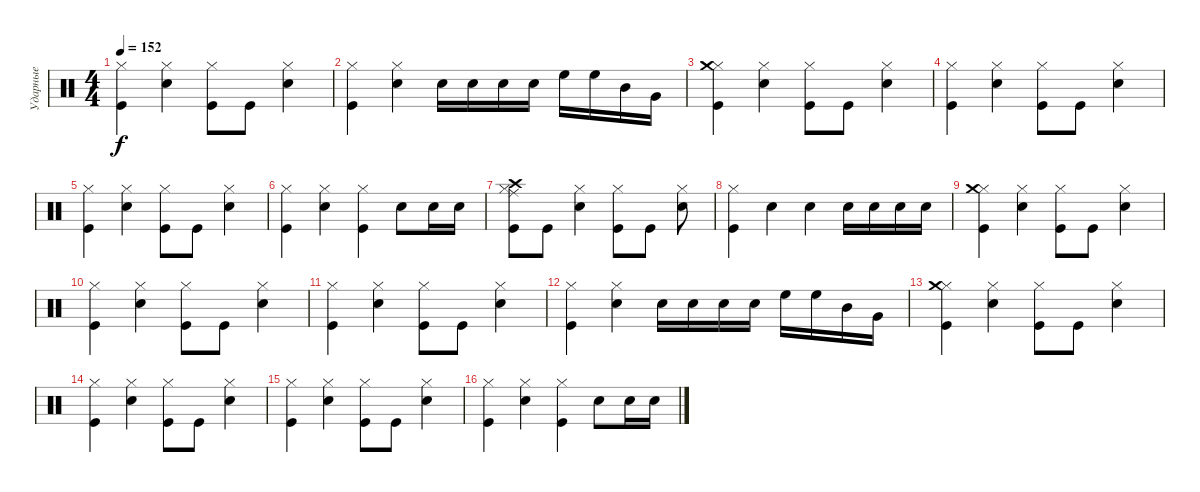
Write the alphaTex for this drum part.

\track ("Ударные" "Ударные") {instrument percussion}
\staff {score}
\articulation defaults
\ts (4 4)
\tempo 152
\clef neutral
\ks c
("Hi-Hat (closed)" "Kick (hit)").4{dy f} ("Hi-Hat (closed)" "Snare (hit) 2").4 ("Kick (hit)" "Hi-Hat (closed)").8 "Kick (hit)".8 ("Snare (hit) 2" "Hi-Hat (closed)").4 |
("Hi-Hat (closed)" "Kick (hit)").4 ("Hi-Hat (closed)" "Snare (hit) 2").4 "Snare (hit) 2".16 "Snare (hit) 2".16 "Snare (hit) 2".16 "Snare (hit) 2".16 "High Floor Tom (hit)".16 "High Floor Tom (hit)".16 "Mid Tom (hit)".16 "Very Low Tom (hit)".16 |
("Hi-Hat (closed)" "Crash medium (hit)" "Kick (hit)").4 ("Hi-Hat (closed)" "Snare (hit) 2").4 ("Kick (hit)" "Hi-Hat (closed)").8 "Kick (hit)".8 ("Snare (hit) 2" "Hi-Hat (closed)").4 |
("Hi-Hat (closed)" "Kick (hit)").4 ("Hi-Hat (closed)" "Snare (hit) 2").4 ("Kick (hit)" "Hi-Hat (closed)").8 "Kick (hit)".8 ("Snare (hit) 2" "Hi-Hat (closed)").4 |
("Hi-Hat (closed)" "Kick (hit)").4 ("Hi-Hat (closed)" "Snare (hit) 2").4 ("Kick (hit)" "Hi-Hat (closed)").8 "Kick (hit)".8 ("Snare (hit) 2" "Hi-Hat (closed)").4 |
("Hi-Hat (closed)" "Kick (hit)").4 ("Hi-Hat (closed)" "Snare (hit) 2").4 ("Kick (hit)" "Hi-Hat (closed)").4 "Snare (hit) 2".8 "Snare (hit) 2".16 "Snare (hit) 2".16 |
("Kick (hit)" "Hi-Hat (closed)" "Ride (middle)" "Crash high (hit)").8 "Kick (hit)".8 ("Snare (hit) 2" "Hi-Hat (closed)").4 ("Hi-Hat (closed)" "Kick (hit)").8 "Kick (hit)".8 ("Snare (hit) 2" "Hi-Hat (closed)").8 |
("Kick (hit)" "Hi-Hat (closed)").4 "Snare (hit) 2".4 "Snare (hit) 2".4 "Snare (hit) 2".16 "Snare (hit) 2".16 "Snare (hit) 2".16 "Snare (hit) 2".16 |
("Hi-Hat (closed)" "Crash medium (hit)" "Kick (hit)").4 ("Hi-Hat (closed)" "Snare (hit) 2").4 ("Kick (hit)" "Hi-Hat (closed)").8 "Kick (hit)".8 ("Snare (hit) 2" "Hi-Hat (closed)").4 |
("Hi-Hat (closed)" "Kick (hit)").4 ("Hi-Hat (closed)" "Snare (hit) 2").4 ("Kick (hit)" "Hi-Hat (closed)").8 "Kick (hit)".8 ("Snare (hit) 2" "Hi-Hat (closed)").4 |
("Hi-Hat (closed)" "Kick (hit)").4 ("Hi-Hat (closed)" "Snare (hit) 2").4 ("Kick (hit)" "Hi-Hat (closed)").8 "Kick (hit)".8 ("Snare (hit) 2" "Hi-Hat (closed)").4 |
("Hi-Hat (closed)" "Kick (hit)").4 ("Hi-Hat (closed)" "Snare (hit) 2").4 "Snare (hit) 2".16 "Snare (hit) 2".16 "Snare (hit) 2".16 "Snare (hit) 2".16 "High Floor Tom (hit)".16 "High Floor Tom (hit)".16 "Mid Tom (hit)".16 "Very Low Tom (hit)".16 |
("Hi-Hat (closed)" "Crash medium (hit)" "Kick (hit)").4 ("Hi-Hat (closed)" "Snare (hit) 2").4 ("Kick (hit)" "Hi-Hat (closed)").8 "Kick (hit)".8 ("Snare (hit) 2" "Hi-Hat (closed)").4 |
("Hi-Hat (closed)" "Kick (hit)").4 ("Hi-Hat (closed)" "Snare (hit) 2").4 ("Kick (hit)" "Hi-Hat (closed)").8 "Kick (hit)".8 ("Snare (hit) 2" "Hi-Hat (closed)").4 |
("Hi-Hat (closed)" "Kick (hit)").4 ("Hi-Hat (closed)" "Snare (hit) 2").4 ("Kick (hit)" "Hi-Hat (closed)").8 "Kick (hit)".8 ("Snare (hit) 2" "Hi-Hat (closed)").4 |
("Hi-Hat (closed)" "Kick (hit)").4 ("Hi-Hat (closed)" "Snare (hit) 2").4 ("Kick (hit)" "Hi-Hat (closed)").4 "Snare (hit) 2".8 "Snare (hit) 2".16 "Snare (hit) 2".16
